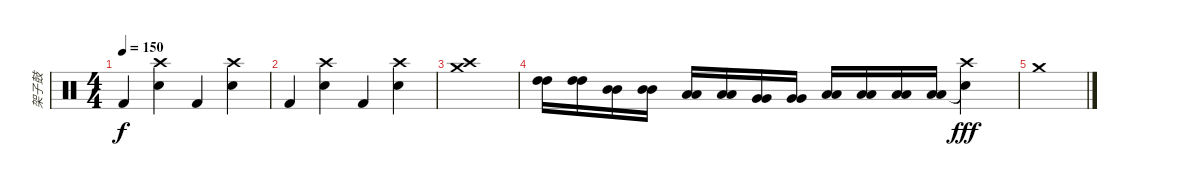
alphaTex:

\track ("架子鼓" "架子鼓") {instrument percussion}
\staff {score}
\articulation defaults
\ts (4 4)
\tempo 150
\clef neutral
\ks c "Kick (hit) 2".4{dy f}
("Crash high (hit)" "Snare (hit) 2").4 "Kick (hit) 2".4 ("Crash high (hit)" "Snare (hit) 2").4 |
"Kick (hit) 2".4 ("Crash high (hit)" "Snare (hit) 2").4 "Kick (hit) 2".4 ("Crash high (hit)" "Snare (hit) 2").4 |
("Crash medium (hit)" "Crash high (hit)").1 |
("High Tom (hit)" "High Tom (hit)").16 ("High Tom (hit)" "High Tom (hit)").16 ("Mid Tom (hit)" "Mid Tom (hit)").16 ("Mid Tom (hit)" "Mid Tom (hit)").16 ("Low Tom (hit)" "Low Tom (hit)").16 ("Low Tom (hit)" "Low Tom (hit)").16 ("Very Low Tom (hit)" "Very Low Tom (hit)").16 ("Very Low Tom (hit)" "Very Low Tom (hit)").16 ("Low Floor Tom (hit)" "Low Floor Tom (hit)").16 ("Low Floor Tom (hit)" "Low Floor Tom (hit)").16 ("Low Floor Tom (hit)" "Low Floor Tom (hit)").16 ("Low Floor Tom (hit)" "Low Floor Tom (hit)").16 ("Crash high (hit)" "Snare (hit)"{t}).4{dy fff} |
"Crash medium (hit)".1
